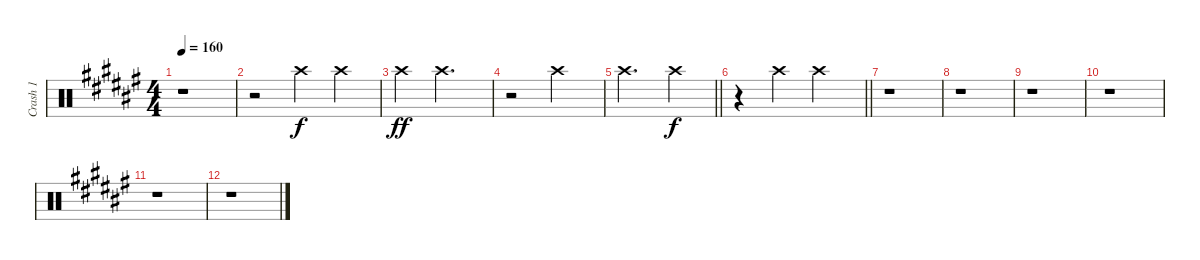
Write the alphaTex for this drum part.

\track ("Crash 1" "Crash 1") {instrument percussion}
\staff {score}
\articulation defaults
\ts (4 4)
\tempo 160
\clef neutral
\ks d#minor
r.1{dy f} |
r.2 "Crash high (hit)".4 "Crash high (hit)".4 |
"Crash high (hit)".4{dy ff} "Crash high (hit)".2{d} |
r.2 "Crash high (hit)".2 |
\barLineRight lightlight "Crash high (hit)".2{d} "Crash high (hit)".4{dy f}
|
\barLineRight lightlight
r.4 "Crash high (hit)".4 "Crash high (hit)".2 |
r.1 |
r.1 |
r.1 |
r.1 |
r.1 |
r.1
